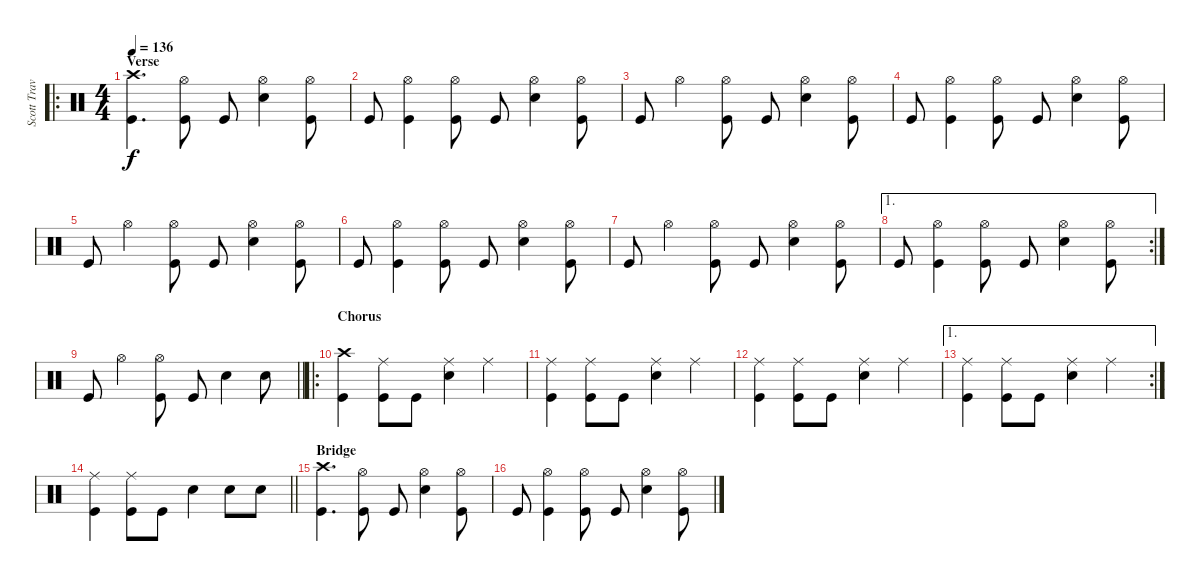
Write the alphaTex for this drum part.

\track ("Scott Travis" "Scott Trav") {instrument percussion}
\staff {score}
\articulation defaults
\ro
\ts (4 4)
\section ("" "Verse")
\tempo 136
\clef neutral
\ks c
("Crash high (hit)" "Kick (hit)").4{d dy f} ("Hi-Hat (open)" "Kick (hit)").8 "Kick (hit)".8 ("Hi-Hat (open)" "Electric Snare (hit)").4 ("Hi-Hat (open)" "Kick (hit)").8 |
"Kick (hit)".8 ("Hi-Hat (open)" "Kick (hit)").4 ("Hi-Hat (open)" "Kick (hit)").8 "Kick (hit)".8 ("Hi-Hat (open)" "Electric Snare (hit)").4 ("Hi-Hat (open)" "Kick (hit)").8 |
"Kick (hit)".8 "Hi-Hat (open)".4 ("Hi-Hat (open)" "Kick (hit)").8 "Kick (hit)".8 ("Hi-Hat (open)" "Electric Snare (hit)").4 ("Hi-Hat (open)" "Kick (hit)").8 |
"Kick (hit)".8 ("Hi-Hat (open)" "Kick (hit)").4 ("Hi-Hat (open)" "Kick (hit)").8 "Kick (hit)".8 ("Hi-Hat (open)" "Electric Snare (hit)").4 ("Hi-Hat (open)" "Kick (hit)").8 |
"Kick (hit)".8 "Hi-Hat (open)".4 ("Hi-Hat (open)" "Kick (hit)").8 "Kick (hit)".8 ("Hi-Hat (open)" "Electric Snare (hit)").4 ("Hi-Hat (open)" "Kick (hit)").8 |
"Kick (hit)".8 ("Hi-Hat (open)" "Kick (hit)").4 ("Hi-Hat (open)" "Kick (hit)").8 "Kick (hit)".8 ("Hi-Hat (open)" "Electric Snare (hit)").4 ("Hi-Hat (open)" "Kick (hit)").8 |
"Kick (hit)".8 "Hi-Hat (open)".4 ("Hi-Hat (open)" "Kick (hit)").8 "Kick (hit)".8 ("Hi-Hat (open)" "Electric Snare (hit)").4 ("Hi-Hat (open)" "Kick (hit)").8 |
\ae 1
\rc 2 "Kick (hit)".8
("Hi-Hat (open)" "Kick (hit)").4 ("Hi-Hat (open)" "Kick (hit)").8 "Kick (hit)".8 ("Hi-Hat (open)" "Electric Snare (hit)").4 ("Hi-Hat (open)" "Kick (hit)").8 |
\barLineRight lightlight "Kick (hit)".8 "Hi-Hat (open)".4
("Hi-Hat (open)" "Kick (hit)").8 "Kick (hit)".8 "Electric Snare (hit)".4 "Electric Snare (hit)".8 |
\ro
\section ("" "Chorus")
("Crash high (hit)" "Kick (hit)").4 ("Ride (middle)" "Kick (hit)").8 "Kick (hit)".8 ("Ride (middle)" "Electric Snare (hit)").4 "Ride (middle)".4 |
("Ride (middle)" "Kick (hit)").4 ("Ride (middle)" "Kick (hit)").8 "Kick (hit)".8 ("Ride (middle)" "Electric Snare (hit)").4 "Ride (middle)".4 |
("Ride (middle)" "Kick (hit)").4 ("Ride (middle)" "Kick (hit)").8 "Kick (hit)".8 ("Ride (middle)" "Electric Snare (hit)").4 "Ride (middle)".4 |
\ae 1
\rc 2
("Ride (middle)" "Kick (hit)").4 ("Ride (middle)" "Kick (hit)").8 "Kick (hit)".8 ("Ride (middle)" "Electric Snare (hit)").4 "Ride (middle)".4 |
\barLineRight lightlight
("Ride (middle)" "Kick (hit)").4 ("Ride (middle)" "Kick (hit)").8 "Kick (hit)".8 "Electric Snare (hit)".4 "Electric Snare (hit)".8 "Electric Snare (hit)".8 |
\section ("" "Bridge")
("Crash high (hit)" "Kick (hit)").4{d} ("Hi-Hat (open)" "Kick (hit)").8 "Kick (hit)".8 ("Hi-Hat (open)" "Electric Snare (hit)").4 ("Hi-Hat (open)" "Kick (hit)").8 |
"Kick (hit)".8 ("Hi-Hat (open)" "Kick (hit)").4 ("Hi-Hat (open)" "Kick (hit)").8 "Kick (hit)".8 ("Hi-Hat (open)" "Electric Snare (hit)").4 ("Hi-Hat (open)" "Kick (hit)").8
